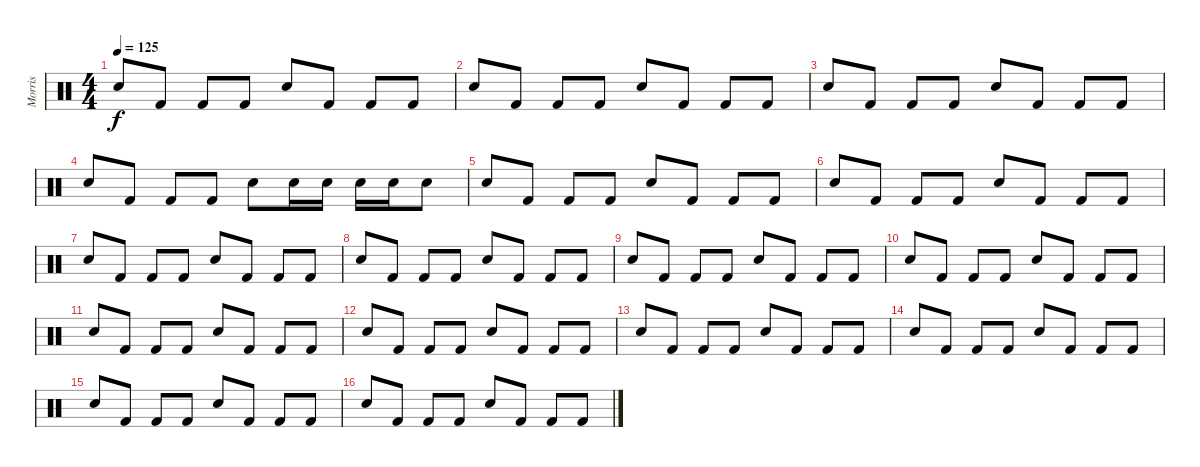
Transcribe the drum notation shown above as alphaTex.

\track ("Morris" "Morris") {instrument percussion}
\staff {score}
\articulation defaults
\ts (4 4)
\tempo 125
\clef neutral
\ks c "Electric Snare (hit)".8{dy f} "Kick (hit) 2".8 "Kick (hit) 2".8 "Kick (hit) 2".8 "Electric Snare (hit)".8 "Kick (hit) 2".8 "Kick (hit) 2".8 "Kick (hit) 2".8
|
"Electric Snare (hit)".8 "Kick (hit) 2".8 "Kick (hit) 2".8 "Kick (hit) 2".8 "Electric Snare (hit)".8 "Kick (hit) 2".8 "Kick (hit) 2".8 "Kick (hit) 2".8 |
"Electric Snare (hit)".8 "Kick (hit) 2".8 "Kick (hit) 2".8 "Kick (hit) 2".8 "Electric Snare (hit)".8 "Kick (hit) 2".8 "Kick (hit) 2".8 "Kick (hit) 2".8 |
"Electric Snare (hit)".8 "Kick (hit) 2".8 "Kick (hit) 2".8 "Kick (hit) 2".8 "Electric Snare (hit)".8 "Electric Snare (hit)".16 "Electric Snare (hit)".16 "Electric Snare (hit)".16 "Electric Snare (hit)".16 "Electric Snare (hit)".8 |
"Electric Snare (hit)".8 "Kick (hit) 2".8 "Kick (hit) 2".8 "Kick (hit) 2".8 "Electric Snare (hit)".8 "Kick (hit) 2".8 "Kick (hit) 2".8 "Kick (hit) 2".8 |
"Electric Snare (hit)".8 "Kick (hit) 2".8 "Kick (hit) 2".8 "Kick (hit) 2".8 "Electric Snare (hit)".8 "Kick (hit) 2".8 "Kick (hit) 2".8 "Kick (hit) 2".8 |
"Electric Snare (hit)".8 "Kick (hit) 2".8 "Kick (hit) 2".8 "Kick (hit) 2".8 "Electric Snare (hit)".8 "Kick (hit) 2".8 "Kick (hit) 2".8 "Kick (hit) 2".8 |
"Electric Snare (hit)".8 "Kick (hit) 2".8 "Kick (hit) 2".8 "Kick (hit) 2".8 "Electric Snare (hit)".8 "Kick (hit) 2".8 "Kick (hit) 2".8 "Kick (hit) 2".8 |
"Electric Snare (hit)".8 "Kick (hit) 2".8 "Kick (hit) 2".8 "Kick (hit) 2".8 "Electric Snare (hit)".8 "Kick (hit) 2".8 "Kick (hit) 2".8 "Kick (hit) 2".8 |
"Electric Snare (hit)".8 "Kick (hit) 2".8 "Kick (hit) 2".8 "Kick (hit) 2".8 "Electric Snare (hit)".8 "Kick (hit) 2".8 "Kick (hit) 2".8 "Kick (hit) 2".8 |
"Electric Snare (hit)".8 "Kick (hit) 2".8 "Kick (hit) 2".8 "Kick (hit) 2".8 "Electric Snare (hit)".8 "Kick (hit) 2".8 "Kick (hit) 2".8 "Kick (hit) 2".8 |
"Electric Snare (hit)".8 "Kick (hit) 2".8 "Kick (hit) 2".8 "Kick (hit) 2".8 "Electric Snare (hit)".8 "Kick (hit) 2".8 "Kick (hit) 2".8 "Kick (hit) 2".8 |
"Electric Snare (hit)".8 "Kick (hit) 2".8 "Kick (hit) 2".8 "Kick (hit) 2".8 "Electric Snare (hit)".8 "Kick (hit) 2".8 "Kick (hit) 2".8 "Kick (hit) 2".8 |
"Electric Snare (hit)".8 "Kick (hit) 2".8 "Kick (hit) 2".8 "Kick (hit) 2".8 "Electric Snare (hit)".8 "Kick (hit) 2".8 "Kick (hit) 2".8 "Kick (hit) 2".8 |
"Electric Snare (hit)".8 "Kick (hit) 2".8 "Kick (hit) 2".8 "Kick (hit) 2".8 "Electric Snare (hit)".8 "Kick (hit) 2".8 "Kick (hit) 2".8 "Kick (hit) 2".8 |
"Electric Snare (hit)".8 "Kick (hit) 2".8 "Kick (hit) 2".8 "Kick (hit) 2".8 "Electric Snare (hit)".8 "Kick (hit) 2".8 "Kick (hit) 2".8 "Kick (hit) 2".8
